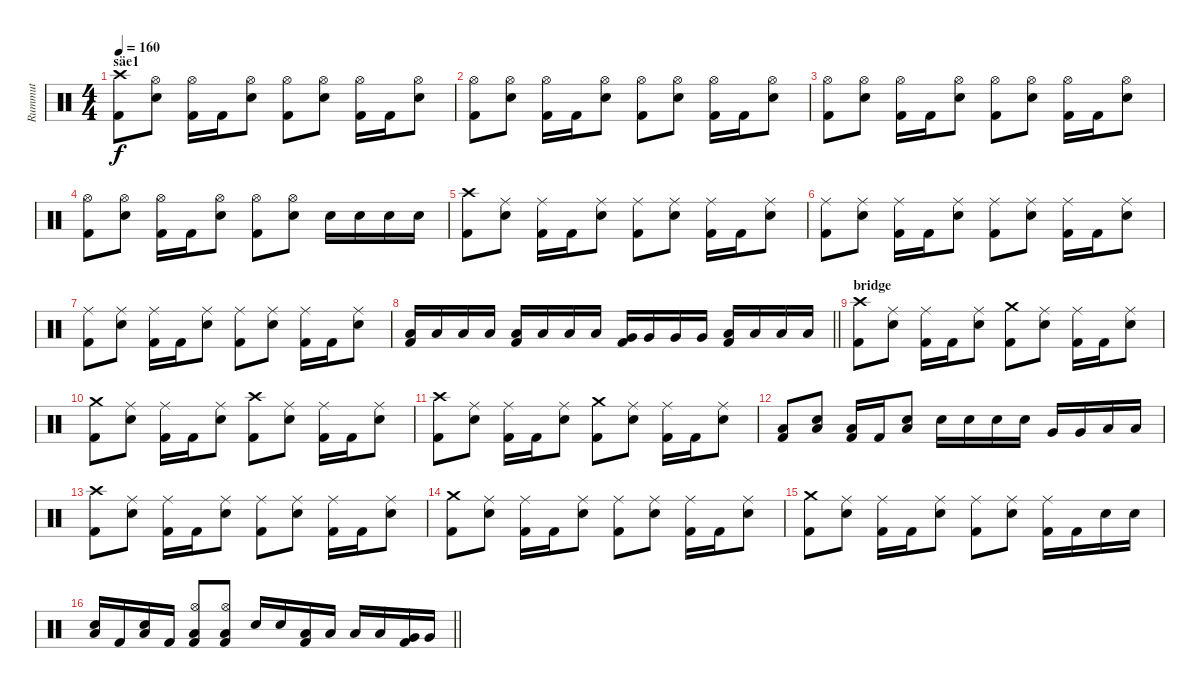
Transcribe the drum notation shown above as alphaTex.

\track ("Rummut" "Rummut") {instrument percussion}
\staff {score}
\articulation defaults
\ts (4 4)
\section ("" "säe1")
\tempo 160
\clef neutral
\ks c
("Crash high (hit)" "Kick (hit) 2").8{dy f} ("Hi-Hat (open)" "Snare (hit) 2").8 ("Hi-Hat (open)" "Kick (hit) 2").16 "Kick (hit) 2".16 ("Hi-Hat (open)" "Snare (hit) 2").8 ("Hi-Hat (open)" "Kick (hit) 2").8 ("Hi-Hat (open)" "Snare (hit) 2").8 ("Hi-Hat (open)" "Kick (hit) 2").16 "Kick (hit) 2".16 ("Hi-Hat (open)" "Snare (hit) 2").8 |
("Hi-Hat (open)" "Kick (hit) 2").8 ("Hi-Hat (open)" "Snare (hit) 2").8 ("Hi-Hat (open)" "Kick (hit) 2").16 "Kick (hit) 2".16 ("Hi-Hat (open)" "Snare (hit) 2").8 ("Hi-Hat (open)" "Kick (hit) 2").8 ("Hi-Hat (open)" "Snare (hit) 2").8 ("Hi-Hat (open)" "Kick (hit) 2").16 "Kick (hit) 2".16 ("Hi-Hat (open)" "Snare (hit) 2").8 |
("Hi-Hat (open)" "Kick (hit) 2").8 ("Hi-Hat (open)" "Snare (hit) 2").8 ("Hi-Hat (open)" "Kick (hit) 2").16 "Kick (hit) 2".16 ("Hi-Hat (open)" "Snare (hit) 2").8 ("Hi-Hat (open)" "Kick (hit) 2").8 ("Hi-Hat (open)" "Snare (hit) 2").8 ("Hi-Hat (open)" "Kick (hit) 2").16 "Kick (hit) 2".16 ("Hi-Hat (open)" "Snare (hit) 2").8 |
("Hi-Hat (open)" "Kick (hit) 2").8 ("Hi-Hat (open)" "Snare (hit) 2").8 ("Hi-Hat (open)" "Kick (hit) 2").16 "Kick (hit) 2".16 ("Hi-Hat (open)" "Snare (hit) 2").8 ("Hi-Hat (open)" "Kick (hit) 2").8 ("Hi-Hat (open)" "Snare (hit) 2").8 "Snare (hit) 2".16 "Snare (hit) 2".16 "Snare (hit) 2".16 "Snare (hit) 2".16 |
("Crash high (hit)" "Kick (hit) 2").8 ("Ride (middle)" "Snare (hit) 2").8 ("Ride (middle)" "Kick (hit) 2").16 "Kick (hit) 2".16 ("Ride (middle)" "Snare (hit) 2").8 ("Ride (middle)" "Kick (hit) 2").8 ("Ride (middle)" "Snare (hit) 2").8 ("Ride (middle)" "Kick (hit) 2").16 "Kick (hit) 2".16 ("Ride (middle)" "Snare (hit) 2").8 |
("Ride (middle)" "Kick (hit) 2").8 ("Ride (middle)" "Snare (hit) 2").8 ("Ride (middle)" "Kick (hit) 2").16 "Kick (hit) 2".16 ("Ride (middle)" "Snare (hit) 2").8 ("Ride (middle)" "Kick (hit) 2").8 ("Ride (middle)" "Snare (hit) 2").8 ("Ride (middle)" "Kick (hit) 2").16 "Kick (hit) 2".16 ("Ride (middle)" "Snare (hit) 2").8 |
("Ride (middle)" "Kick (hit) 2").8 ("Ride (middle)" "Snare (hit) 2").8 ("Ride (middle)" "Kick (hit) 2").16 "Kick (hit) 2".16 ("Ride (middle)" "Snare (hit) 2").8 ("Ride (middle)" "Kick (hit) 2").8 ("Ride (middle)" "Snare (hit) 2").8 ("Ride (middle)" "Kick (hit) 2").16 "Kick (hit) 2".16 ("Ride (middle)" "Snare (hit) 2").8 |
\barLineRight lightlight
("Low Tom (hit)" "Kick (hit) 2").16 "Low Tom (hit)".16 "Low Tom (hit)".16 "Low Tom (hit)".16 ("Low Tom (hit)" "Kick (hit) 2").16 "Low Tom (hit)".16 "Low Tom (hit)".16 "Low Tom (hit)".16 ("Very Low Tom (hit)" "Kick (hit) 2").16 "Very Low Tom (hit)".16 "Very Low Tom (hit)".16 "Very Low Tom (hit)".16 ("Low Floor Tom (hit)" "Kick (hit) 2").16 "Low Floor Tom (hit)".16 "Low Floor Tom (hit)".16 "Low Floor Tom (hit)".16 |
\section ("" "bridge")
("Crash high (hit)" "Kick (hit) 2").8 ("Ride (middle)" "Snare (hit) 2").8 ("Ride (middle)" "Kick (hit) 2").16 "Kick (hit) 2".16 ("Ride (middle)" "Snare (hit) 2").8 ("Crash medium (hit)" "Kick (hit) 2").8 ("Ride (middle)" "Snare (hit) 2").8 ("Ride (middle)" "Kick (hit) 2").16 "Kick (hit) 2".16 ("Ride (middle)" "Snare (hit) 2").8 |
("Crash medium (hit)" "Kick (hit) 2").8 ("Ride (middle)" "Snare (hit) 2").8 ("Ride (middle)" "Kick (hit) 2").16 "Kick (hit) 2".16 ("Ride (middle)" "Snare (hit) 2").8 ("Crash high (hit)" "Kick (hit) 2").8 ("Ride (middle)" "Snare (hit) 2").8 ("Ride (middle)" "Kick (hit) 2").16 "Kick (hit) 2".16 ("Ride (middle)" "Snare (hit) 2").8 |
("Crash high (hit)" "Kick (hit) 2").8 ("Ride (middle)" "Snare (hit) 2").8 ("Ride (middle)" "Kick (hit) 2").16 "Kick (hit) 2".16 ("Ride (middle)" "Snare (hit) 2").8 ("Crash medium (hit)" "Kick (hit) 2").8 ("Ride (middle)" "Snare (hit) 2").8 ("Ride (middle)" "Kick (hit) 2").16 "Kick (hit) 2".16 ("Ride (middle)" "Snare (hit) 2").8 |
("Low Floor Tom (hit)" "Kick (hit) 2").8 ("Low Floor Tom (hit)" "Snare (hit) 2").8 ("Low Floor Tom (hit)" "Kick (hit) 2").16 "Kick (hit) 2".16 ("Low Floor Tom (hit)" "Snare (hit) 2").8 "Snare (hit) 2".16 "Snare (hit) 2".16 "Snare (hit) 2".16 "Snare (hit) 2".16 "Very Low Tom (hit)".16 "Very Low Tom (hit)".16 "Low Floor Tom (hit)".16 "Low Floor Tom (hit)".16 |
("Crash high (hit)" "Kick (hit) 2").8 ("Ride (middle)" "Snare (hit) 2").8 ("Ride (middle)" "Kick (hit) 2").16 "Kick (hit) 2".16 ("Ride (middle)" "Snare (hit) 2").8 ("Ride (middle)" "Kick (hit) 2").8 ("Ride (middle)" "Snare (hit) 2").8 ("Ride (middle)" "Kick (hit) 2").16 "Kick (hit) 2".16 ("Ride (middle)" "Snare (hit) 2").8 |
("Crash medium (hit)" "Kick (hit) 2").8 ("Ride (middle)" "Snare (hit) 2").8 ("Ride (middle)" "Kick (hit) 2").16 "Kick (hit) 2".16 ("Ride (middle)" "Snare (hit) 2").8 ("Ride (middle)" "Kick (hit) 2").8 ("Ride (middle)" "Snare (hit) 2").8 ("Ride (middle)" "Kick (hit) 2").16 "Kick (hit) 2".16 ("Ride (middle)" "Snare (hit) 2").8 |
("Crash medium (hit)" "Kick (hit) 2").8 ("Ride (middle)" "Snare (hit) 2").8 ("Ride (middle)" "Kick (hit) 2").16 "Kick (hit) 2".16 ("Ride (middle)" "Snare (hit) 2").8 ("Ride (middle)" "Kick (hit) 2").8 ("Ride (middle)" "Snare (hit) 2").8 ("Ride (middle)" "Kick (hit) 2").16 "Kick (hit) 2".16 "Snare (hit) 2".16 "Snare (hit) 2".16 |
\barLineRight lightlight
("Snare (hit) 2" "Low Floor Tom (hit)").16 "Kick (hit) 2".16 ("Snare (hit) 2" "Low Floor Tom (hit)").16 "Kick (hit) 2".16 ("Hi-Hat (open)" "Low Floor Tom (hit)" "Kick (hit) 2").8 ("Hi-Hat (open)" "Low Floor Tom (hit)" "Kick (hit) 2").8 "Snare (hit) 2".16 "Snare (hit) 2".16 ("Low Tom (hit)" "Kick (hit) 2").16 "Low Tom (hit)".16 "Low Tom (hit)".16 "Low Tom (hit)".16 ("Very Low Tom (hit)" "Kick (hit) 2").16 "Very Low Tom (hit)".16
